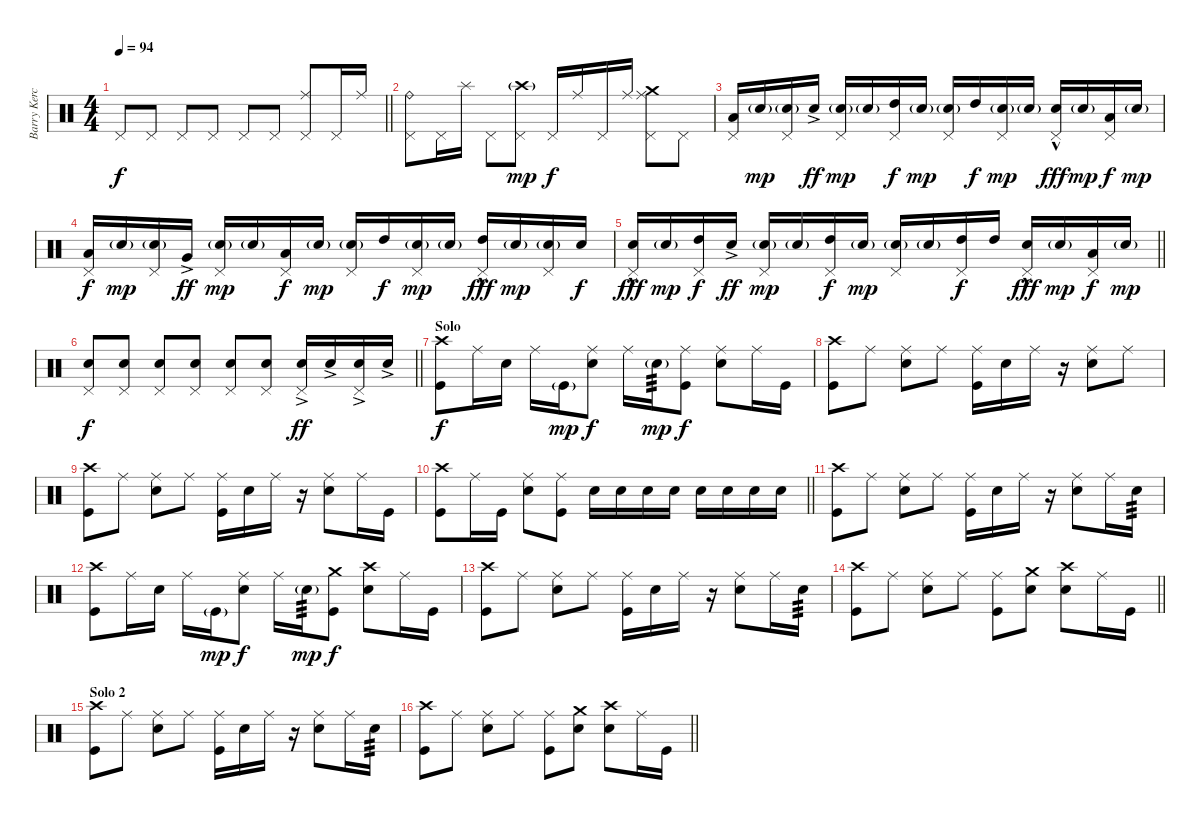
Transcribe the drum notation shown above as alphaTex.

\track ("Barry Kerch" "Barry Kerc") {instrument percussion}
\staff {score}
\articulation defaults
\ts (4 4)
\tempo 94
\clef neutral
\barLineRight lightlight
\ks c "Pedal Hi-Hat (hit)".8{dy f} "Pedal Hi-Hat (hit)".8 "Pedal Hi-Hat (hit)".8 "Pedal Hi-Hat (hit)".8 "Pedal Hi-Hat (hit)".8 "Pedal Hi-Hat (hit)".8
("Ride (middle)" "Pedal Hi-Hat (hit)").8 "Pedal Hi-Hat (hit)".16 "Ride (middle)".16 |
("Ride (bell)" "Pedal Hi-Hat (hit)").8 "Pedal Hi-Hat (hit)".16 "Splash (hit)".16 "Pedal Hi-Hat (hit)".8 ("Crash high (hit)"{g} "Pedal Hi-Hat (hit)").8{dy mp} "Pedal Hi-Hat (hit)".16{dy f} "Ride (middle)".16 "Pedal Hi-Hat (hit)".16 "Ride (middle)".16 ("Crash medium (hit)" "Ride (middle)" "Pedal Hi-Hat (hit)").8 "Pedal Hi-Hat (hit)".8 |
("Low Tom (hit)" "Pedal Hi-Hat (hit)").16 "Snare (hit) 2"{g}.16{dy mp} ("Snare (hit) 2"{g} "Pedal Hi-Hat (hit)").16 "Snare (hit) 2"{ac}.16{dy ff} ("Snare (hit) 2"{g} "Pedal Hi-Hat (hit)").16{dy mp} "Snare (hit) 2"{g}.16 ("High Tom (hit)" "Pedal Hi-Hat (hit)").16{dy f} "Snare (hit) 2"{g}.16{dy mp} ("Snare (hit) 2"{g} "Pedal Hi-Hat (hit)").16 "High Tom (hit)".16{dy f} ("Snare (hit) 2"{g} "Pedal Hi-Hat (hit)").16{dy mp} "Snare (hit) 2"{g}.16 ("Snare (hit) 2"{hac} "Pedal Hi-Hat (hit)").16{dy fff} "Snare (hit) 2"{g}.16{dy mp} ("Low Tom (hit)" "Pedal Hi-Hat (hit)").16{dy f} "Snare (hit) 2"{g}.16{dy mp} |
("Low Tom (hit)" "Pedal Hi-Hat (hit)").16{dy f} "Snare (hit) 2"{g}.16{dy mp} ("Snare (hit) 2"{g} "Pedal Hi-Hat (hit)").16 "Very Low Tom (hit)"{ac}.16{dy ff} ("Snare (hit) 2"{g} "Pedal Hi-Hat (hit)").16{dy mp} "Snare (hit) 2"{g}.16 ("Low Tom (hit)" "Pedal Hi-Hat (hit)").16{dy f} "Snare (hit) 2"{g}.16{dy mp} ("Snare (hit) 2"{g} "Pedal Hi-Hat (hit)").16 "High Tom (hit)".16{dy f} ("Snare (hit) 2"{g} "Pedal Hi-Hat (hit)").16{dy mp} "Snare (hit) 2"{g}.16 ("High Tom (hit)"{hac} "Pedal Hi-Hat (hit)").16{dy fff} "Snare (hit) 2"{g}.16{dy mp} ("Snare (hit) 2"{g} "Pedal Hi-Hat (hit)").16 "Snare (hit) 2".16{dy f} |
\barLineRight lightlight
("Snare (hit) 2"{hac} "Pedal Hi-Hat (hit)").16{dy fff} "Snare (hit) 2"{g}.16{dy mp} ("High Tom (hit)" "Pedal Hi-Hat (hit)").16{dy f} "Snare (hit) 2"{ac}.16{dy ff} ("Snare (hit) 2"{g} "Pedal Hi-Hat (hit)").16{dy mp} "Snare (hit) 2"{g}.16 ("High Tom (hit)" "Pedal Hi-Hat (hit)").16{dy f} "Snare (hit) 2"{g}.16{dy mp} ("Snare (hit) 2"{g} "Pedal Hi-Hat (hit)").16 "Snare (hit) 2"{g}.16 ("High Tom (hit)" "Pedal Hi-Hat (hit)").16{dy f} "High Tom (hit)".16 ("Snare (hit) 2"{hac} "Pedal Hi-Hat (hit)").16{dy fff} "Snare (hit) 2"{g}.16{dy mp} ("Low Tom (hit)" "Pedal Hi-Hat (hit)").16{dy f} "Snare (hit) 2"{g}.16{dy mp} |
\barLineRight lightlight
("Snare (hit) 2" "Pedal Hi-Hat (hit)").8{dy f} ("Snare (hit) 2" "Pedal Hi-Hat (hit)").8 ("Snare (hit) 2" "Pedal Hi-Hat (hit)").8 ("Snare (hit) 2" "Pedal Hi-Hat (hit)").8 ("Snare (hit) 2" "Pedal Hi-Hat (hit)").8 ("Snare (hit) 2" "Pedal Hi-Hat (hit)").8 ("Snare (hit) 2"{ac} "Pedal Hi-Hat (hit)").16{dy ff} "Snare (hit) 2"{ac}.16 ("Snare (hit) 2"{ac} "Pedal Hi-Hat (hit)").16 "Snare (hit) 2"{ac}.16 |
\section ("" "Solo")
("Crash high (hit)" "Kick (hit)").8{dy f} "Ride (middle)".16 "Snare (hit) 2".16 "Ride (middle)".16 "Kick (hit)"{g}.16{dy mp} ("Ride (middle)" "Snare (hit) 2").8{dy f} "Ride (middle)".16 "Snare (hit) 2"{g}.16{tp 3 dy mp} ("Ride (middle)" "Kick (hit)").8{dy f} ("Ride (middle)" "Snare (hit) 2").8 "Ride (middle)".16 "Kick (hit)".16 |
("Crash high (hit)" "Kick (hit)").8 "Ride (middle)".8 ("Ride (middle)" "Snare (hit) 2").8 "Ride (middle)".8 ("Ride (middle)" "Kick (hit)").16 "Snare (hit) 2".16 "Ride (middle)".16 r.16 ("Ride (middle)" "Snare (hit) 2").8 "Ride (middle)".8 |
("Crash high (hit)" "Kick (hit)").8 "Ride (middle)".8 ("Ride (middle)" "Snare (hit) 2").8 "Ride (middle)".8 ("Ride (middle)" "Kick (hit)").16 "Snare (hit) 2".16 "Ride (middle)".16 r.16 ("Ride (middle)" "Snare (hit) 2").8 "Ride (middle)".16 "Kick (hit)".16 |
\barLineRight lightlight
("Crash high (hit)" "Kick (hit)").8 "Ride (middle)".16 "Kick (hit)".16 ("Ride (middle)" "Snare (hit) 2").8 ("Ride (middle)" "Kick (hit)").8 "Snare (hit) 2".16 "Snare (hit) 2".16 "Snare (hit) 2".16 "Snare (hit) 2".16 "Snare (hit) 2".16 "Snare (hit) 2".16 "Snare (hit) 2".16 "Snare (hit) 2".16 |
("Crash high (hit)" "Kick (hit)").8 "Ride (middle)".8 ("Ride (middle)" "Snare (hit) 2").8 "Ride (middle)".8 ("Ride (middle)" "Kick (hit)").16 "Snare (hit) 2".16 "Ride (middle)".16 r.16 ("Ride (middle)" "Snare (hit) 2").8 "Ride (middle)".16 "Snare (hit) 2".16{tp 3} |
("Crash high (hit)" "Kick (hit)").8 "Ride (middle)".16 "Snare (hit) 2".16 "Ride (middle)".16 "Kick (hit)"{g}.16{dy mp} ("Ride (middle)" "Snare (hit) 2").8{dy f} "Ride (middle)".16 "Snare (hit) 2"{g}.16{tp 3 dy mp} ("Crash medium (hit)" "Kick (hit)").8{dy f} ("Crash high (hit)" "Snare (hit) 2").8 "Ride (middle)".16 "Kick (hit)".16 |
("Crash high (hit)" "Kick (hit)").8 "Ride (middle)".8 ("Ride (middle)" "Snare (hit) 2").8 "Ride (middle)".8 ("Ride (middle)" "Kick (hit)").16 "Snare (hit) 2".16 "Ride (middle)".16 r.16 ("Ride (middle)" "Snare (hit) 2").8 "Ride (middle)".16 "Snare (hit) 2".16{tp 3} |
\barLineRight lightlight
("Crash high (hit)" "Kick (hit)").8 "Ride (middle)".8 ("Ride (middle)" "Snare (hit) 2").8 "Ride (middle)".8 ("Ride (middle)" "Kick (hit)").8 ("Crash medium (hit)" "Snare (hit) 2").8 ("Crash high (hit)" "Snare (hit) 2").8 "Ride (middle)".16 "Kick (hit)".16 |
\section ("" "Solo 2")
("Crash high (hit)" "Kick (hit)").8 "Ride (middle)".8 ("Ride (middle)" "Snare (hit) 2").8 "Ride (middle)".8 ("Ride (middle)" "Kick (hit)").16 "Snare (hit) 2".16 "Ride (middle)".16 r.16 ("Ride (middle)" "Snare (hit) 2").8 "Ride (middle)".16 "Snare (hit) 2".16{tp 3} |
\barLineRight lightlight
("Crash high (hit)" "Kick (hit)").8 "Ride (middle)".8 ("Ride (middle)" "Snare (hit) 2").8 "Ride (middle)".8 ("Ride (middle)" "Kick (hit)").8 ("Crash medium (hit)" "Snare (hit) 2").8 ("Crash high (hit)" "Snare (hit) 2").8 "Ride (middle)".16 "Kick (hit)".16
